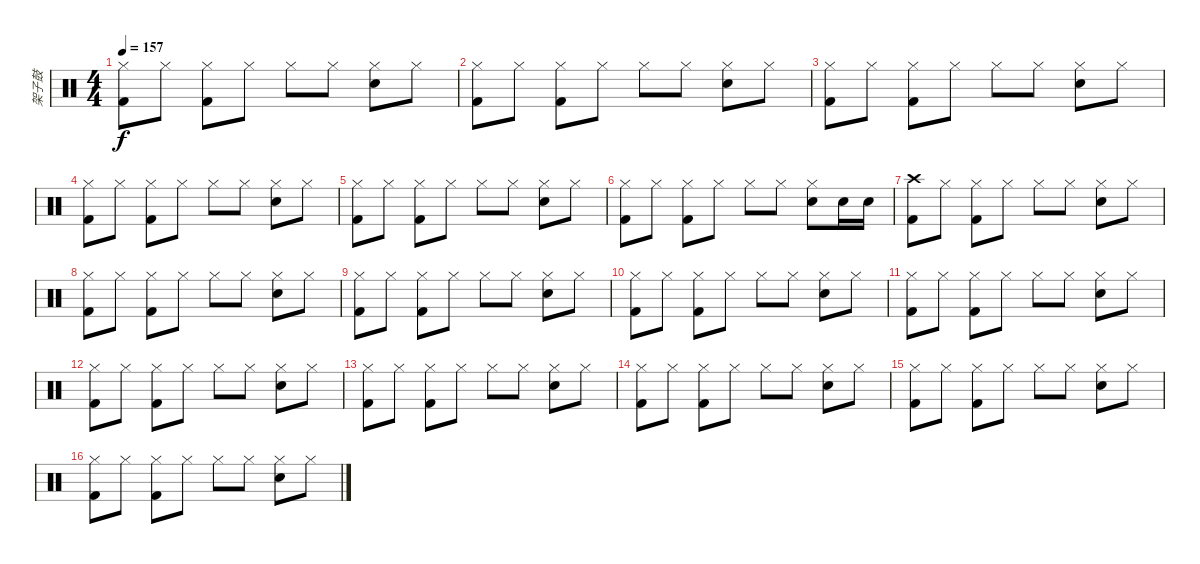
\track ("架子鼓" "架子鼓") {instrument percussion}
\staff {score}
\articulation defaults
\ts (4 4)
\tempo 157
\clef neutral
\ks c
("Hi-Hat (closed)" "Kick (hit) 2").8{dy f} "Hi-Hat (closed)".8 ("Hi-Hat (closed)" "Kick (hit) 2").8 "Hi-Hat (closed)".8 "Hi-Hat (closed)".8 "Hi-Hat (closed)".8 ("Hi-Hat (closed)" "Snare (hit) 2").8 "Hi-Hat (closed)".8 |
("Hi-Hat (closed)" "Kick (hit) 2").8 "Hi-Hat (closed)".8 ("Hi-Hat (closed)" "Kick (hit) 2").8 "Hi-Hat (closed)".8 "Hi-Hat (closed)".8 "Hi-Hat (closed)".8 ("Hi-Hat (closed)" "Snare (hit) 2").8 "Hi-Hat (closed)".8 |
("Hi-Hat (closed)" "Kick (hit) 2").8 "Hi-Hat (closed)".8 ("Hi-Hat (closed)" "Kick (hit) 2").8 "Hi-Hat (closed)".8 "Hi-Hat (closed)".8 "Hi-Hat (closed)".8 ("Hi-Hat (closed)" "Snare (hit) 2").8 "Hi-Hat (closed)".8 |
("Hi-Hat (closed)" "Kick (hit) 2").8 "Hi-Hat (closed)".8 ("Hi-Hat (closed)" "Kick (hit) 2").8 "Hi-Hat (closed)".8 "Hi-Hat (closed)".8 "Hi-Hat (closed)".8 ("Hi-Hat (closed)" "Snare (hit) 2").8 "Hi-Hat (closed)".8 |
("Hi-Hat (closed)" "Kick (hit) 2").8 "Hi-Hat (closed)".8 ("Hi-Hat (closed)" "Kick (hit) 2").8 "Hi-Hat (closed)".8 "Hi-Hat (closed)".8 "Hi-Hat (closed)".8 ("Hi-Hat (closed)" "Snare (hit) 2").8 "Hi-Hat (closed)".8 |
("Hi-Hat (closed)" "Kick (hit) 2").8 "Hi-Hat (closed)".8 ("Hi-Hat (closed)" "Kick (hit) 2").8 "Hi-Hat (closed)".8 "Hi-Hat (closed)".8 "Hi-Hat (closed)".8 ("Hi-Hat (closed)" "Snare (hit) 2").8 "Snare (hit) 2".16 "Snare (hit) 2".16 |
("Crash high (hit)" "Kick (hit) 2").8 "Hi-Hat (closed)".8 ("Hi-Hat (closed)" "Kick (hit) 2").8 "Hi-Hat (closed)".8 "Hi-Hat (closed)".8 "Hi-Hat (closed)".8 ("Hi-Hat (closed)" "Snare (hit) 2").8 "Hi-Hat (closed)".8 |
("Hi-Hat (closed)" "Kick (hit) 2").8 "Hi-Hat (closed)".8 ("Hi-Hat (closed)" "Kick (hit) 2").8 "Hi-Hat (closed)".8 "Hi-Hat (closed)".8 "Hi-Hat (closed)".8 ("Hi-Hat (closed)" "Snare (hit) 2").8 "Hi-Hat (closed)".8 |
("Hi-Hat (closed)" "Kick (hit) 2").8 "Hi-Hat (closed)".8 ("Hi-Hat (closed)" "Kick (hit) 2").8 "Hi-Hat (closed)".8 "Hi-Hat (closed)".8 "Hi-Hat (closed)".8 ("Hi-Hat (closed)" "Snare (hit) 2").8 "Hi-Hat (closed)".8 |
("Hi-Hat (closed)" "Kick (hit) 2").8 "Hi-Hat (closed)".8 ("Hi-Hat (closed)" "Kick (hit) 2").8 "Hi-Hat (closed)".8 "Hi-Hat (closed)".8 "Hi-Hat (closed)".8 ("Hi-Hat (closed)" "Snare (hit) 2").8 "Hi-Hat (closed)".8 |
("Hi-Hat (closed)" "Kick (hit) 2").8 "Hi-Hat (closed)".8 ("Hi-Hat (closed)" "Kick (hit) 2").8 "Hi-Hat (closed)".8 "Hi-Hat (closed)".8 "Hi-Hat (closed)".8 ("Hi-Hat (closed)" "Snare (hit) 2").8 "Hi-Hat (closed)".8 |
("Hi-Hat (closed)" "Kick (hit) 2").8 "Hi-Hat (closed)".8 ("Hi-Hat (closed)" "Kick (hit) 2").8 "Hi-Hat (closed)".8 "Hi-Hat (closed)".8 "Hi-Hat (closed)".8 ("Hi-Hat (closed)" "Snare (hit) 2").8 "Hi-Hat (closed)".8 |
("Hi-Hat (closed)" "Kick (hit) 2").8 "Hi-Hat (closed)".8 ("Hi-Hat (closed)" "Kick (hit) 2").8 "Hi-Hat (closed)".8 "Hi-Hat (closed)".8 "Hi-Hat (closed)".8 ("Hi-Hat (closed)" "Snare (hit) 2").8 "Hi-Hat (closed)".8 |
("Hi-Hat (closed)" "Kick (hit) 2").8 "Hi-Hat (closed)".8 ("Hi-Hat (closed)" "Kick (hit) 2").8 "Hi-Hat (closed)".8 "Hi-Hat (closed)".8 "Hi-Hat (closed)".8 ("Hi-Hat (closed)" "Snare (hit) 2").8 "Hi-Hat (closed)".8 |
("Hi-Hat (closed)" "Kick (hit) 2").8 "Hi-Hat (closed)".8 ("Hi-Hat (closed)" "Kick (hit) 2").8 "Hi-Hat (closed)".8 "Hi-Hat (closed)".8 "Hi-Hat (closed)".8 ("Hi-Hat (closed)" "Snare (hit) 2").8 "Hi-Hat (closed)".8 |
("Hi-Hat (closed)" "Kick (hit) 2").8 "Hi-Hat (closed)".8 ("Hi-Hat (closed)" "Kick (hit) 2").8 "Hi-Hat (closed)".8 "Hi-Hat (closed)".8 "Hi-Hat (closed)".8 ("Hi-Hat (closed)" "Snare (hit) 2").8 "Hi-Hat (closed)".8
